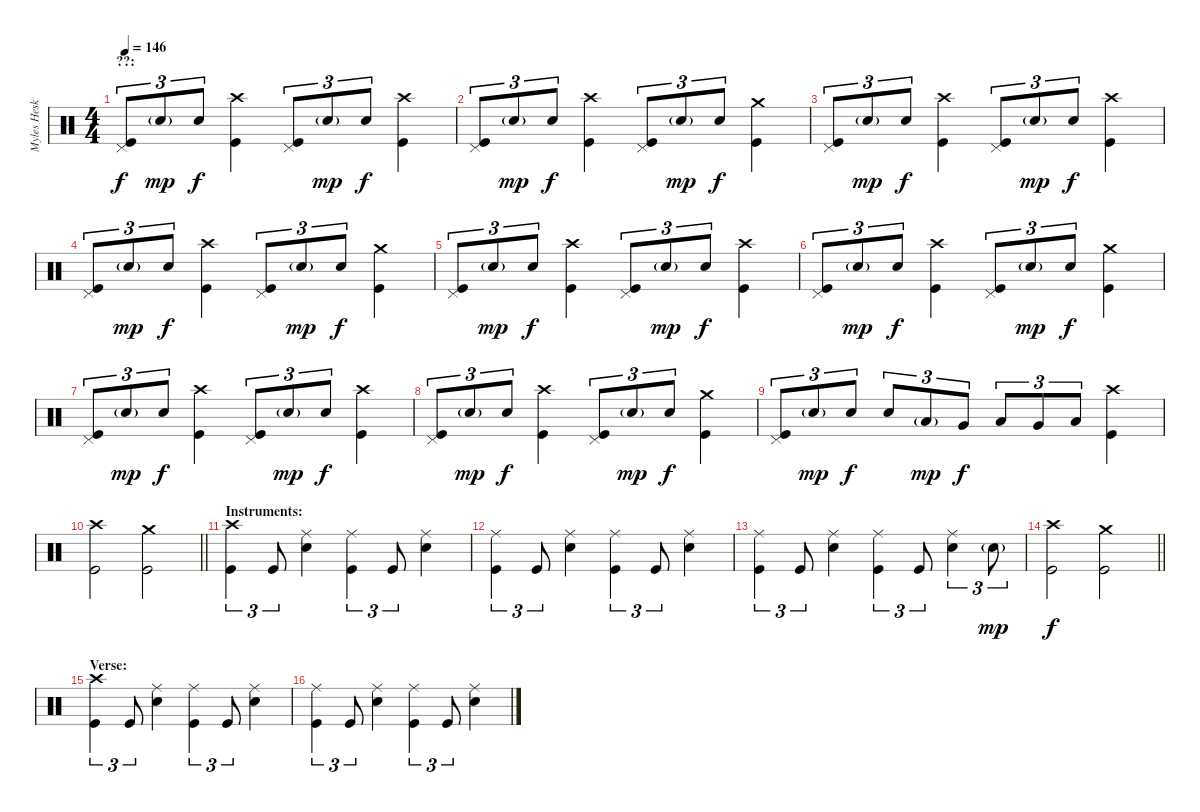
\track ("Myles Heskett" "Myles Hesk") {instrument percussion}
\staff {score}
\articulation defaults
\ts (4 4)
\section ("" "??:")
\tempo 146
\clef neutral
\ks c
("Pedal Hi-Hat (hit)" "Kick (hit)").8{tu (3 2) dy f} "Electric Snare (hit)"{g}.8{tu (3 2) dy mp} "Electric Snare (hit)".8{tu (3 2) dy f} ("Crash high (hit)" "Kick (hit)").4 ("Pedal Hi-Hat (hit)" "Kick (hit)").8{tu (3 2)} "Electric Snare (hit)"{g}.8{tu (3 2) dy mp} "Electric Snare (hit)".8{tu (3 2) dy f} ("Crash high (hit)" "Kick (hit)").4 |
("Pedal Hi-Hat (hit)" "Kick (hit)").8{tu (3 2)} "Electric Snare (hit)"{g}.8{tu (3 2) dy mp} "Electric Snare (hit)".8{tu (3 2) dy f} ("Crash high (hit)" "Kick (hit)").4 ("Pedal Hi-Hat (hit)" "Kick (hit)").8{tu (3 2)} "Electric Snare (hit)"{g}.8{tu (3 2) dy mp} "Electric Snare (hit)".8{tu (3 2) dy f} ("Crash medium (hit)" "Kick (hit)").4 |
("Pedal Hi-Hat (hit)" "Kick (hit)").8{tu (3 2)} "Electric Snare (hit)"{g}.8{tu (3 2) dy mp} "Electric Snare (hit)".8{tu (3 2) dy f} ("Crash high (hit)" "Kick (hit)").4 ("Pedal Hi-Hat (hit)" "Kick (hit)").8{tu (3 2)} "Electric Snare (hit)"{g}.8{tu (3 2) dy mp} "Electric Snare (hit)".8{tu (3 2) dy f} ("Crash high (hit)" "Kick (hit)").4 |
("Pedal Hi-Hat (hit)" "Kick (hit)").8{tu (3 2)} "Electric Snare (hit)"{g}.8{tu (3 2) dy mp} "Electric Snare (hit)".8{tu (3 2) dy f} ("Crash high (hit)" "Kick (hit)").4 ("Pedal Hi-Hat (hit)" "Kick (hit)").8{tu (3 2)} "Electric Snare (hit)"{g}.8{tu (3 2) dy mp} "Electric Snare (hit)".8{tu (3 2) dy f} ("Crash medium (hit)" "Kick (hit)").4 |
("Pedal Hi-Hat (hit)" "Kick (hit)").8{tu (3 2)} "Electric Snare (hit)"{g}.8{tu (3 2) dy mp} "Electric Snare (hit)".8{tu (3 2) dy f} ("Crash high (hit)" "Kick (hit)").4 ("Pedal Hi-Hat (hit)" "Kick (hit)").8{tu (3 2)} "Electric Snare (hit)"{g}.8{tu (3 2) dy mp} "Electric Snare (hit)".8{tu (3 2) dy f} ("Crash high (hit)" "Kick (hit)").4 |
("Pedal Hi-Hat (hit)" "Kick (hit)").8{tu (3 2)} "Electric Snare (hit)"{g}.8{tu (3 2) dy mp} "Electric Snare (hit)".8{tu (3 2) dy f} ("Crash high (hit)" "Kick (hit)").4 ("Pedal Hi-Hat (hit)" "Kick (hit)").8{tu (3 2)} "Electric Snare (hit)"{g}.8{tu (3 2) dy mp} "Electric Snare (hit)".8{tu (3 2) dy f} ("Crash medium (hit)" "Kick (hit)").4 |
("Pedal Hi-Hat (hit)" "Kick (hit)").8{tu (3 2)} "Electric Snare (hit)"{g}.8{tu (3 2) dy mp} "Electric Snare (hit)".8{tu (3 2) dy f} ("Crash high (hit)" "Kick (hit)").4 ("Pedal Hi-Hat (hit)" "Kick (hit)").8{tu (3 2)} "Electric Snare (hit)"{g}.8{tu (3 2) dy mp} "Electric Snare (hit)".8{tu (3 2) dy f} ("Crash high (hit)" "Kick (hit)").4 |
("Pedal Hi-Hat (hit)" "Kick (hit)").8{tu (3 2)} "Electric Snare (hit)"{g}.8{tu (3 2) dy mp} "Electric Snare (hit)".8{tu (3 2) dy f} ("Crash high (hit)" "Kick (hit)").4 ("Pedal Hi-Hat (hit)" "Kick (hit)").8{tu (3 2)} "Electric Snare (hit)"{g}.8{tu (3 2) dy mp} "Electric Snare (hit)".8{tu (3 2) dy f} ("Crash medium (hit)" "Kick (hit)").4 |
("Pedal Hi-Hat (hit)" "Kick (hit)").8{tu (3 2)} "Electric Snare (hit)"{g}.8{tu (3 2) dy mp} "Electric Snare (hit)".8{tu (3 2) dy f} "Electric Snare (hit)".8{tu (3 2)} "Low Tom (hit)"{g}.8{tu (3 2) dy mp} "Very Low Tom (hit)".8{tu (3 2) dy f} "Low Tom (hit)".8{tu (3 2)} "Very Low Tom (hit)".8{tu (3 2)} "Low Floor Tom (hit)".8{tu (3 2)} ("Crash high (hit)" "Kick (hit)").4 |
\barLineRight lightlight
("Crash high (hit)" "Kick (hit)").2 ("Crash medium (hit)" "Kick (hit)").2 |
\section ("" "Instruments:")
("Crash high (hit)" "Kick (hit)").4{tu (3 2)} "Kick (hit)".8{tu (3 2)} ("Ride (middle)" "Electric Snare (hit)").4 ("Ride (middle)" "Kick (hit)").4{tu (3 2)} "Kick (hit)".8{tu (3 2)} ("Ride (middle)" "Electric Snare (hit)").4 |
("Ride (middle)" "Kick (hit)").4{tu (3 2)} "Kick (hit)".8{tu (3 2)} ("Ride (middle)" "Electric Snare (hit)").4 ("Ride (middle)" "Kick (hit)").4{tu (3 2)} "Kick (hit)".8{tu (3 2)} ("Ride (middle)" "Electric Snare (hit)").4 |
("Ride (middle)" "Kick (hit)").4{tu (3 2)} "Kick (hit)".8{tu (3 2)} ("Ride (middle)" "Electric Snare (hit)").4 ("Ride (middle)" "Kick (hit)").4{tu (3 2)} "Kick (hit)".8{tu (3 2)} ("Ride (middle)" "Electric Snare (hit)").4{tu (3 2)} "Electric Snare (hit)"{g}.8{tu (3 2) dy mp} |
\barLineRight lightlight
("Crash high (hit)" "Kick (hit)").2{dy f} ("Crash medium (hit)" "Kick (hit)").2 |
\section ("" "Verse:")
("Crash high (hit)" "Kick (hit)").4{tu (3 2)} "Kick (hit)".8{tu (3 2)} ("Ride (middle)" "Electric Snare (hit)").4 ("Ride (middle)" "Kick (hit)").4{tu (3 2)} "Kick (hit)".8{tu (3 2)} ("Ride (middle)" "Electric Snare (hit)").4 |
("Ride (middle)" "Kick (hit)").4{tu (3 2)} "Kick (hit)".8{tu (3 2)} ("Ride (middle)" "Electric Snare (hit)").4 ("Ride (middle)" "Kick (hit)").4{tu (3 2)} "Kick (hit)".8{tu (3 2)} ("Ride (middle)" "Electric Snare (hit)").4
